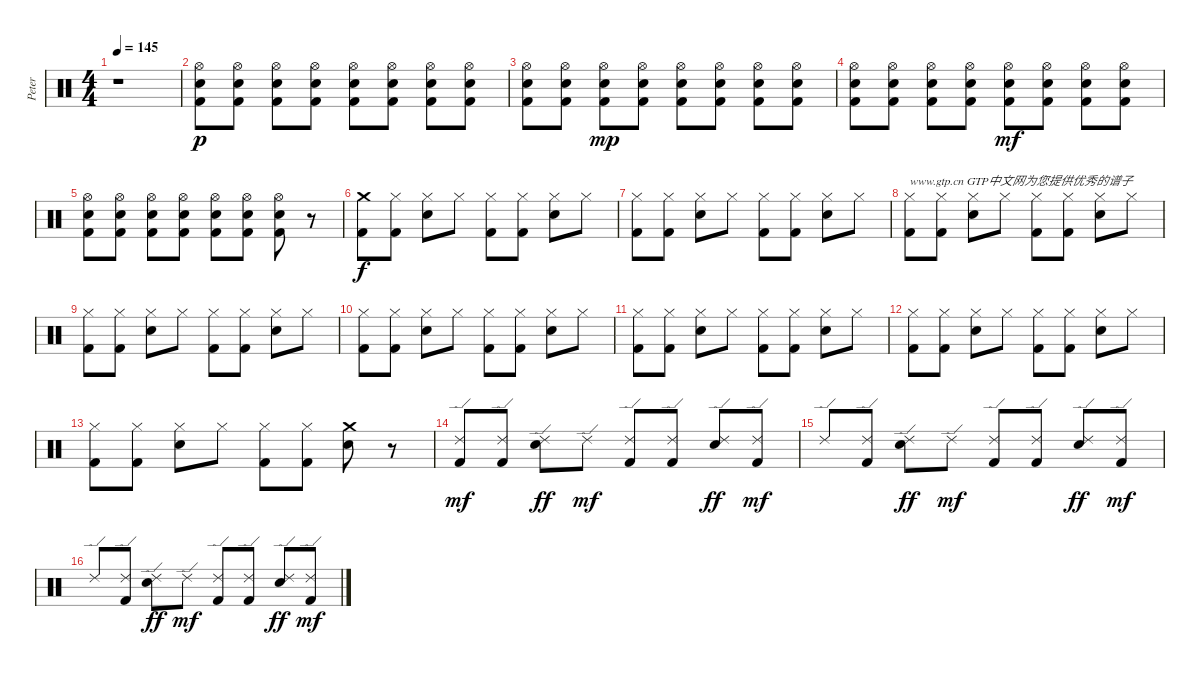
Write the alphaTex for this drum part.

\track ("Peter" "Peter") {instrument percussion}
\staff {score}
\articulation defaults
\ts (4 4)
\tempo 145
\clef neutral
\ks c
r.1{dy p} |
("Hi-Hat (open)" "Electric Snare (hit)" "Kick (hit) 2").8 ("Hi-Hat (open)" "Electric Snare (hit)" "Kick (hit) 2").8 ("Hi-Hat (open)" "Electric Snare (hit)" "Kick (hit) 2").8 ("Hi-Hat (open)" "Electric Snare (hit)" "Kick (hit) 2").8 ("Hi-Hat (open)" "Electric Snare (hit)" "Kick (hit) 2").8 ("Hi-Hat (open)" "Electric Snare (hit)" "Kick (hit) 2").8 ("Hi-Hat (open)" "Electric Snare (hit)" "Kick (hit) 2").8 ("Hi-Hat (open)" "Electric Snare (hit)" "Kick (hit) 2").8 |
("Hi-Hat (open)" "Electric Snare (hit)" "Kick (hit) 2").8 ("Hi-Hat (open)" "Electric Snare (hit)" "Kick (hit) 2").8 ("Hi-Hat (open)" "Electric Snare (hit)" "Kick (hit) 2").8{dy mp} ("Hi-Hat (open)" "Electric Snare (hit)" "Kick (hit) 2").8 ("Hi-Hat (open)" "Electric Snare (hit)" "Kick (hit) 2").8 ("Hi-Hat (open)" "Electric Snare (hit)" "Kick (hit) 2").8 ("Hi-Hat (open)" "Electric Snare (hit)" "Kick (hit) 2").8 ("Hi-Hat (open)" "Electric Snare (hit)" "Kick (hit) 2").8 |
("Hi-Hat (open)" "Electric Snare (hit)" "Kick (hit) 2").8 ("Hi-Hat (open)" "Electric Snare (hit)" "Kick (hit) 2").8 ("Hi-Hat (open)" "Electric Snare (hit)" "Kick (hit) 2").8 ("Hi-Hat (open)" "Electric Snare (hit)" "Kick (hit) 2").8 ("Hi-Hat (open)" "Electric Snare (hit)" "Kick (hit) 2").8{dy mf} ("Hi-Hat (open)" "Electric Snare (hit)" "Kick (hit) 2").8 ("Hi-Hat (open)" "Electric Snare (hit)" "Kick (hit) 2").8 ("Hi-Hat (open)" "Electric Snare (hit)" "Kick (hit) 2").8 |
("Hi-Hat (open)" "Electric Snare (hit)" "Kick (hit) 2").8 ("Hi-Hat (open)" "Electric Snare (hit)" "Kick (hit) 2").8 ("Hi-Hat (open)" "Electric Snare (hit)" "Kick (hit) 2").8 ("Hi-Hat (open)" "Electric Snare (hit)" "Kick (hit) 2").8 ("Hi-Hat (open)" "Electric Snare (hit)" "Kick (hit) 2").8 ("Hi-Hat (open)" "Electric Snare (hit)" "Kick (hit) 2").8 ("Hi-Hat (open)" "Electric Snare (hit)" "Kick (hit) 2").8 r.8 |
("Crash medium (hit)" "Kick (hit) 2").8{dy f} ("Hi-Hat (closed)" "Kick (hit) 2").8 ("Hi-Hat (closed)" "Electric Snare (hit)").8 "Hi-Hat (closed)".8 ("Hi-Hat (closed)" "Kick (hit) 2").8 ("Hi-Hat (closed)" "Kick (hit) 2").8 ("Hi-Hat (closed)" "Electric Snare (hit)").8 "Hi-Hat (closed)".8 |
("Hi-Hat (closed)" "Kick (hit) 2").8 ("Hi-Hat (closed)" "Kick (hit) 2").8 ("Hi-Hat (closed)" "Electric Snare (hit)").8 "Hi-Hat (closed)".8 ("Hi-Hat (closed)" "Kick (hit) 2").8 ("Hi-Hat (closed)" "Kick (hit) 2").8 ("Hi-Hat (closed)" "Electric Snare (hit)").8 "Hi-Hat (closed)".8 |
("Hi-Hat (closed)" "Kick (hit) 2").8{txt "www.gtp.cn GTP中文网为您提供优秀的谱子"} ("Hi-Hat (closed)" "Kick (hit) 2").8 ("Hi-Hat (closed)" "Electric Snare (hit)").8 "Hi-Hat (closed)".8 ("Hi-Hat (closed)" "Kick (hit) 2").8 ("Hi-Hat (closed)" "Kick (hit) 2").8 ("Hi-Hat (closed)" "Electric Snare (hit)").8 "Hi-Hat (closed)".8 |
("Hi-Hat (closed)" "Kick (hit) 2").8 ("Hi-Hat (closed)" "Kick (hit) 2").8 ("Hi-Hat (closed)" "Electric Snare (hit)").8 "Hi-Hat (closed)".8 ("Hi-Hat (closed)" "Kick (hit) 2").8 ("Hi-Hat (closed)" "Kick (hit) 2").8 ("Hi-Hat (closed)" "Electric Snare (hit)").8 "Hi-Hat (closed)".8 |
("Hi-Hat (closed)" "Kick (hit) 2").8 ("Hi-Hat (closed)" "Kick (hit) 2").8 ("Hi-Hat (closed)" "Electric Snare (hit)").8 "Hi-Hat (closed)".8 ("Hi-Hat (closed)" "Kick (hit) 2").8 ("Hi-Hat (closed)" "Kick (hit) 2").8 ("Hi-Hat (closed)" "Electric Snare (hit)").8 "Hi-Hat (closed)".8 |
("Hi-Hat (closed)" "Kick (hit) 2").8 ("Hi-Hat (closed)" "Kick (hit) 2").8 ("Hi-Hat (closed)" "Electric Snare (hit)").8 "Hi-Hat (closed)".8 ("Hi-Hat (closed)" "Kick (hit) 2").8 ("Hi-Hat (closed)" "Kick (hit) 2").8 ("Hi-Hat (closed)" "Electric Snare (hit)").8 "Hi-Hat (closed)".8 |
("Hi-Hat (closed)" "Kick (hit) 2").8 ("Hi-Hat (closed)" "Kick (hit) 2").8 ("Hi-Hat (closed)" "Electric Snare (hit)").8 "Hi-Hat (closed)".8 ("Hi-Hat (closed)" "Kick (hit) 2").8 ("Hi-Hat (closed)" "Kick (hit) 2").8 ("Hi-Hat (closed)" "Electric Snare (hit)").8 "Hi-Hat (closed)".8 |
("Hi-Hat (closed)" "Kick (hit) 2").8 ("Hi-Hat (closed)" "Kick (hit) 2").8 ("Hi-Hat (closed)" "Electric Snare (hit)").8 "Hi-Hat (closed)".8 ("Hi-Hat (closed)" "Kick (hit) 2").8 ("Hi-Hat (closed)" "Kick (hit) 2").8 ("Crash medium (hit)" "Electric Snare (hit)").8 r.8 |
("Ride (edge) 2" "Kick (hit) 2").8{dy mf} ("Ride (edge) 2" "Kick (hit) 2").8 ("Ride (edge) 2" "Electric Snare (hit)").8{dy ff} "Ride (edge) 2".8{dy mf} ("Ride (edge) 2" "Kick (hit) 2").8 ("Ride (edge) 2" "Kick (hit) 2").8 ("Ride (edge) 2" "Electric Snare (hit)").8{dy ff} ("Ride (edge) 2" "Kick (hit) 2").8{dy mf} |
"Ride (edge) 2".8 ("Ride (edge) 2" "Kick (hit) 2").8 ("Ride (edge) 2" "Electric Snare (hit)").8{dy ff} "Ride (edge) 2".8{dy mf} ("Ride (edge) 2" "Kick (hit) 2").8 ("Ride (edge) 2" "Kick (hit) 2").8 ("Ride (edge) 2" "Electric Snare (hit)").8{dy ff} ("Ride (edge) 2" "Kick (hit) 2").8{dy mf} |
"Ride (edge) 2".8 ("Ride (edge) 2" "Kick (hit) 2").8 ("Ride (edge) 2" "Electric Snare (hit)").8{dy ff} "Ride (edge) 2".8{dy mf} ("Ride (edge) 2" "Kick (hit) 2").8 ("Ride (edge) 2" "Kick (hit) 2").8 ("Ride (edge) 2" "Electric Snare (hit)").8{dy ff} ("Ride (edge) 2" "Kick (hit) 2").8{dy mf}
